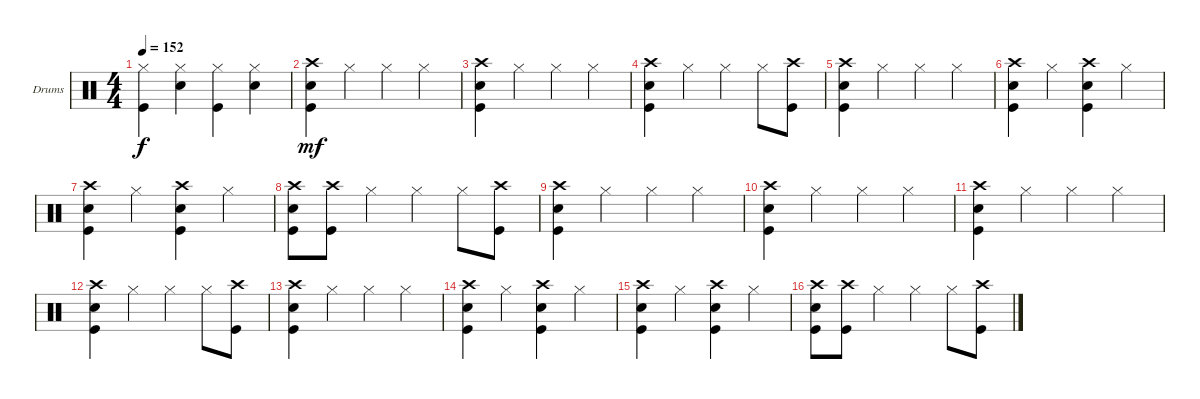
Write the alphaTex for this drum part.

\bracketExtendMode groupsimilarinstruments
\firstSystemTrackNameOrientation horizontal
\otherSystemsTrackNameOrientation horizontal
\track ("Drumkit" "Drums") {instrument percussion}
\staff {score}
\articulation defaults
\ts (4 4)
\tempo 152
\clef neutral
\scale
0.333333
\ks c
("Hi-Hat (closed)" "Kick (hit)").4{dy f} ("Snare (hit) 2" "Hi-Hat (closed)").4 ("Kick (hit)" "Hi-Hat (closed)").4 ("Snare (hit) 2" "Hi-Hat (closed)").4 |
\scale
0.333333 ("Kick (hit)" "Snare (hit) 2" "Crash high (hit)").4{dy mf} "Hi-Hat (closed)".4 "Hi-Hat (closed)".4 "Hi-Hat (closed)".4 |
\scale
0.333333 ("Kick (hit)" "Snare (hit) 2" "Crash high (hit)").4 "Hi-Hat (closed)".4 "Hi-Hat (closed)".4 "Hi-Hat (closed)".4 |
\scale
0.333333 ("Kick (hit)" "Snare (hit) 2" "Crash high (hit)").4 "Hi-Hat (closed)".4 "Hi-Hat (closed)".4 "Hi-Hat (closed)".8 ("Crash high (hit)" "Kick (hit)").8 |
\scale
0.333333 ("Kick (hit)" "Snare (hit) 2" "Crash high (hit)").4 "Hi-Hat (closed)".4 "Hi-Hat (closed)".4 "Hi-Hat (closed)".4 |
\scale
0.333333 ("Kick (hit)" "Snare (hit) 2" "Crash high (hit)").4 "Hi-Hat (closed)".4 ("Kick (hit)" "Snare (hit) 2" "Crash high (hit)").4 "Hi-Hat (closed)".4 |
\scale
0.333333 ("Kick (hit)" "Snare (hit) 2" "Crash high (hit)").4 "Hi-Hat (closed)".4 ("Kick (hit)" "Snare (hit) 2" "Crash high (hit)").4 "Hi-Hat (closed)".4 |
\scale
0.333333 ("Kick (hit)" "Snare (hit) 2" "Crash high (hit)").8 ("Crash high (hit)" "Kick (hit)").8 "Hi-Hat (closed)".4 "Hi-Hat (closed)".4 "Hi-Hat (closed)".8 ("Crash high (hit)" "Kick (hit)").8 |
\scale
0.333333 ("Kick (hit)" "Snare (hit) 2" "Crash high (hit)").4 "Hi-Hat (closed)".4 "Hi-Hat (closed)".4 "Hi-Hat (closed)".4 |
\scale
0.333333 ("Kick (hit)" "Snare (hit) 2" "Crash high (hit)").4 "Hi-Hat (closed)".4 "Hi-Hat (closed)".4 "Hi-Hat (closed)".4 |
\scale
0.333333 ("Kick (hit)" "Snare (hit) 2" "Crash high (hit)").4 "Hi-Hat (closed)".4 "Hi-Hat (closed)".4 "Hi-Hat (closed)".4 |
\scale
0.333333 ("Kick (hit)" "Snare (hit) 2" "Crash high (hit)").4 "Hi-Hat (closed)".4 "Hi-Hat (closed)".4 "Hi-Hat (closed)".8 ("Crash high (hit)" "Kick (hit)").8 |
\scale
0.333333 ("Kick (hit)" "Snare (hit) 2" "Crash high (hit)").4 "Hi-Hat (closed)".4 "Hi-Hat (closed)".4 "Hi-Hat (closed)".4 |
\scale
0.333333 ("Kick (hit)" "Snare (hit) 2" "Crash high (hit)").4 "Hi-Hat (closed)".4 ("Kick (hit)" "Snare (hit) 2" "Crash high (hit)").4 "Hi-Hat (closed)".4 |
\scale
0.333333 ("Kick (hit)" "Snare (hit) 2" "Crash high (hit)").4 "Hi-Hat (closed)".4 ("Kick (hit)" "Snare (hit) 2" "Crash high (hit)").4 "Hi-Hat (closed)".4 |
\scale
0.333333 ("Kick (hit)" "Snare (hit) 2" "Crash high (hit)").8 ("Crash high (hit)" "Kick (hit)").8 "Hi-Hat (closed)".4 "Hi-Hat (closed)".4 "Hi-Hat (closed)".8 ("Crash high (hit)" "Kick (hit)").8
